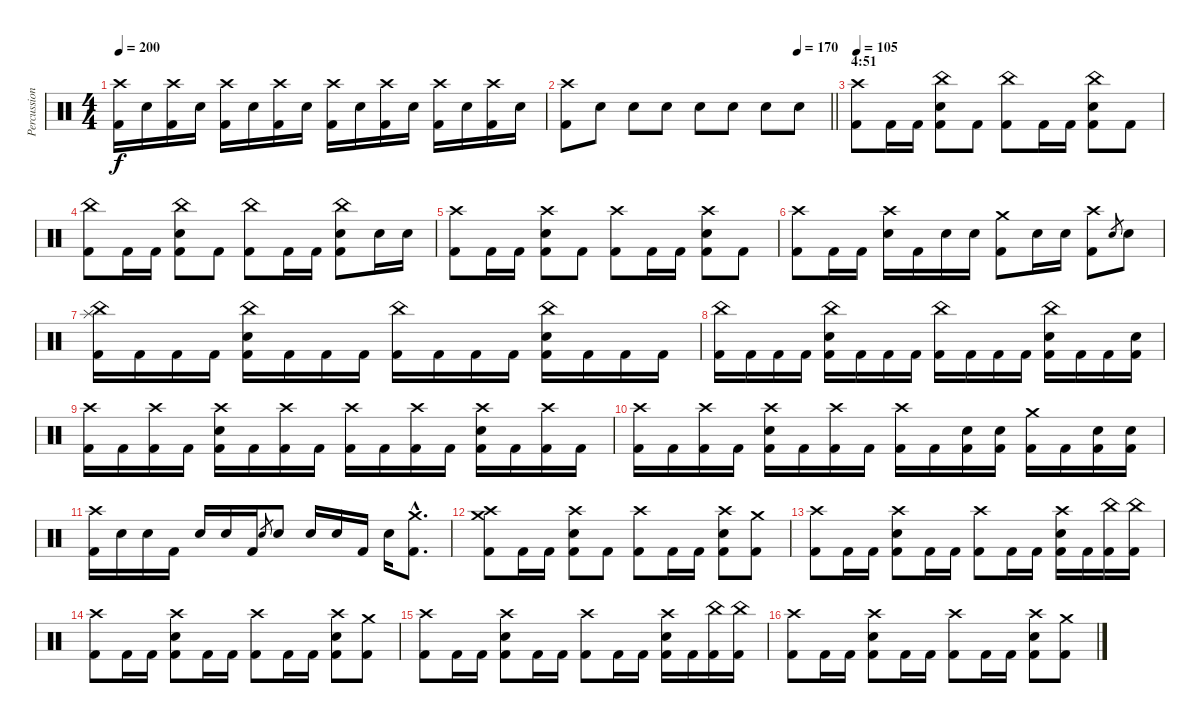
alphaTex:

\track ("Percussion" "Percussion") {instrument percussion}
\staff {score}
\articulation defaults
\ts (4 4)
\tempo 200
\clef neutral
\ks c
("Crash high (hit)" "Kick (hit) 2").16{dy f} "Electric Snare (hit)".16 ("Crash high (hit)" "Kick (hit) 2").16 "Electric Snare (hit)".16 ("Crash high (hit)" "Kick (hit) 2").16 "Electric Snare (hit)".16 ("Crash high (hit)" "Kick (hit) 2").16 "Electric Snare (hit)".16 ("Crash high (hit)" "Kick (hit) 2").16 "Electric Snare (hit)".16 ("Crash high (hit)" "Kick (hit) 2").16 "Electric Snare (hit)".16 ("Crash high (hit)" "Kick (hit) 2").16 "Electric Snare (hit)".16 ("Crash high (hit)" "Kick (hit) 2").16 "Electric Snare (hit)".16 |
\tempo (170 0.875)
\barLineRight lightlight
("Crash high (hit)" "Kick (hit) 2").8 "Electric Snare (hit)".8 "Electric Snare (hit)".8 "Electric Snare (hit)".8 "Electric Snare (hit)".8 "Electric Snare (hit)".8 "Electric Snare (hit)".8 "Electric Snare (hit)".8 |
\section ("" "4:51")
\tempo 105
("Crash high (hit)" "Kick (hit) 2").8 "Kick (hit) 2".16 "Kick (hit) 2".16 ("Kick (hit) 2" "China (hit)" "Electric Snare (hit)").8 "Kick (hit) 2".8 ("China (hit)" "Kick (hit) 2").8 "Kick (hit) 2".16 "Kick (hit) 2".16 ("Kick (hit) 2" "China (hit)" "Electric Snare (hit)").8 "Kick (hit) 2".8 |
("China (hit)" "Kick (hit) 2").8 "Kick (hit) 2".16 "Kick (hit) 2".16 ("Kick (hit) 2" "China (hit)" "Electric Snare (hit)").8 "Kick (hit) 2".8 ("China (hit)" "Kick (hit) 2").8 "Kick (hit) 2".16 "Kick (hit) 2".16 ("Kick (hit) 2" "China (hit)" "Electric Snare (hit)").8 "Electric Snare (hit)".16 "Electric Snare (hit)".16 |
("Crash high (hit)" "Kick (hit) 2").8 "Kick (hit) 2".16 "Kick (hit) 2".16 ("Kick (hit) 2" "Crash high (hit)" "Electric Snare (hit)").8 "Kick (hit) 2".8 ("Crash high (hit)" "Kick (hit) 2").8 "Kick (hit) 2".16 "Kick (hit) 2".16 ("Kick (hit) 2" "Crash high (hit)" "Electric Snare (hit)").8 "Kick (hit) 2".8 |
("Crash high (hit)" "Kick (hit) 2").8 "Kick (hit) 2".16 "Kick (hit) 2".16 ("Crash high (hit)" "Electric Snare (hit)").16 "Kick (hit) 2".16 "Electric Snare (hit)".16 "Electric Snare (hit)".16 ("Crash medium (hit)" "Kick (hit) 2").8 "Electric Snare (hit)".16 "Electric Snare (hit)".16 ("Crash high (hit)" "Kick (hit) 2").8 "Electric Snare (hit)".8{gr} "Electric Snare (hit)".8 |
("China (hit)" "Splash (hit)" "Kick (hit) 2").16 "Kick (hit) 2".16 "Kick (hit) 2".16 "Kick (hit) 2".16 ("Kick (hit) 2" "China (hit)" "Electric Snare (hit)").16 "Kick (hit) 2".16 "Kick (hit) 2".16 "Kick (hit) 2".16 ("Kick (hit) 2" "China (hit)").16 "Kick (hit) 2".16 "Kick (hit) 2".16 "Kick (hit) 2".16 ("Kick (hit) 2" "China (hit)" "Electric Snare (hit)").16 "Kick (hit) 2".16 "Kick (hit) 2".16 "Kick (hit) 2".16 |
("China (hit)" "Kick (hit) 2").16 "Kick (hit) 2".16 "Kick (hit) 2".16 "Kick (hit) 2".16 ("Kick (hit) 2" "China (hit)" "Electric Snare (hit)").16 "Kick (hit) 2".16 "Kick (hit) 2".16 "Kick (hit) 2".16 ("Kick (hit) 2" "China (hit)").16 "Kick (hit) 2".16 "Kick (hit) 2".16 "Kick (hit) 2".16 ("Kick (hit) 2" "China (hit)" "Electric Snare (hit)").16 "Kick (hit) 2".16 "Kick (hit) 2".16 ("Kick (hit) 2" "Electric Snare (hit)").16 |
("Crash high (hit)" "Kick (hit) 2").16 "Kick (hit) 2".16 ("Kick (hit) 2" "Crash high (hit)").16 "Kick (hit) 2".16 ("Kick (hit) 2" "Crash high (hit)" "Electric Snare (hit)").16 "Kick (hit) 2".16 ("Kick (hit) 2" "Crash high (hit)").16 "Kick (hit) 2".16 ("Kick (hit) 2" "Crash high (hit)").16 "Kick (hit) 2".16 ("Kick (hit) 2" "Crash high (hit)").16 "Kick (hit) 2".16 ("Kick (hit) 2" "Crash high (hit)" "Electric Snare (hit)").16 "Kick (hit) 2".16 ("Kick (hit) 2" "Crash high (hit)").16 "Kick (hit) 2".16 |
("Crash high (hit)" "Kick (hit) 2").16 "Kick (hit) 2".16 ("Kick (hit) 2" "Crash high (hit)").16 "Kick (hit) 2".16 ("Kick (hit) 2" "Crash high (hit)" "Electric Snare (hit)").16 "Kick (hit) 2".16 ("Kick (hit) 2" "Crash high (hit)").16 "Kick (hit) 2".16 ("Kick (hit) 2" "Crash high (hit)").16 "Kick (hit) 2".16 ("Kick (hit) 2" "Electric Snare (hit)").16 ("Kick (hit) 2" "Electric Snare (hit)").16 ("Kick (hit) 2" "Crash medium (hit)").16 "Kick (hit) 2".16 ("Kick (hit) 2" "Electric Snare (hit)").16 ("Kick (hit) 2" "Electric Snare (hit)").16 |
("Crash high (hit)" "Kick (hit) 2").16 "Electric Snare (hit)".16 "Electric Snare (hit)".16 "Kick (hit) 2".16 "Electric Snare (hit)".16 "Electric Snare (hit)".16 "Kick (hit) 2".16 "Electric Snare (hit)".8{gr} "Electric Snare (hit)".8 "Electric Snare (hit)".16 "Electric Snare (hit)".16 "Kick (hit) 2".16 "Electric Snare (hit)".16 ("Crash medium (hit)"{hac} "Kick (hit) 2"{hac}).8{d} |
("Crash high (hit)" "Crash medium (hit)" "Kick (hit) 2").8 "Kick (hit) 2".16 "Kick (hit) 2".16 ("Kick (hit) 2" "Crash high (hit)" "Electric Snare (hit)").8 "Kick (hit) 2".8 ("Kick (hit) 2" "Crash high (hit)").8 "Kick (hit) 2".16 "Kick (hit) 2".16 ("Kick (hit) 2" "Crash high (hit)" "Electric Snare (hit)").8 ("Kick (hit) 2" "Crash medium (hit)").8 |
("Crash high (hit)" "Kick (hit) 2").8 "Kick (hit) 2".16 "Kick (hit) 2".16 ("Kick (hit) 2" "Crash high (hit)" "Electric Snare (hit)").8 "Kick (hit) 2".16 "Kick (hit) 2".16 ("Kick (hit) 2" "Crash high (hit)").8 "Kick (hit) 2".16 "Kick (hit) 2".16 ("Kick (hit) 2" "Crash high (hit)" "Electric Snare (hit)").16 "Kick (hit) 2".16 ("Kick (hit) 2" "China (hit)").16 ("Kick (hit) 2" "China (hit)").16 |
("Crash high (hit)" "Kick (hit) 2").8 "Kick (hit) 2".16 "Kick (hit) 2".16 ("Kick (hit) 2" "Crash high (hit)" "Electric Snare (hit)").8 "Kick (hit) 2".16 "Kick (hit) 2".16 ("Kick (hit) 2" "Crash high (hit)").8 "Kick (hit) 2".16 "Kick (hit) 2".16 ("Kick (hit) 2" "Crash high (hit)" "Electric Snare (hit)").8 ("Kick (hit) 2" "Crash medium (hit)").8 |
("Crash high (hit)" "Kick (hit) 2").8 "Kick (hit) 2".16 "Kick (hit) 2".16 ("Kick (hit) 2" "Crash high (hit)" "Electric Snare (hit)").8 "Kick (hit) 2".16 "Kick (hit) 2".16 ("Kick (hit) 2" "Crash high (hit)").8 "Kick (hit) 2".16 "Kick (hit) 2".16 ("Kick (hit) 2" "Crash high (hit)" "Electric Snare (hit)").16 "Kick (hit) 2".16 ("Kick (hit) 2" "China (hit)").16 ("Kick (hit) 2" "China (hit)").16 |
("Crash high (hit)" "Kick (hit) 2").8 "Kick (hit) 2".16 "Kick (hit) 2".16 ("Kick (hit) 2" "Crash high (hit)" "Electric Snare (hit)").8 "Kick (hit) 2".16 "Kick (hit) 2".16 ("Kick (hit) 2" "Crash high (hit)").8 "Kick (hit) 2".16 "Kick (hit) 2".16 ("Kick (hit) 2" "Crash high (hit)" "Electric Snare (hit)").8 ("Kick (hit) 2" "Crash medium (hit)").8
